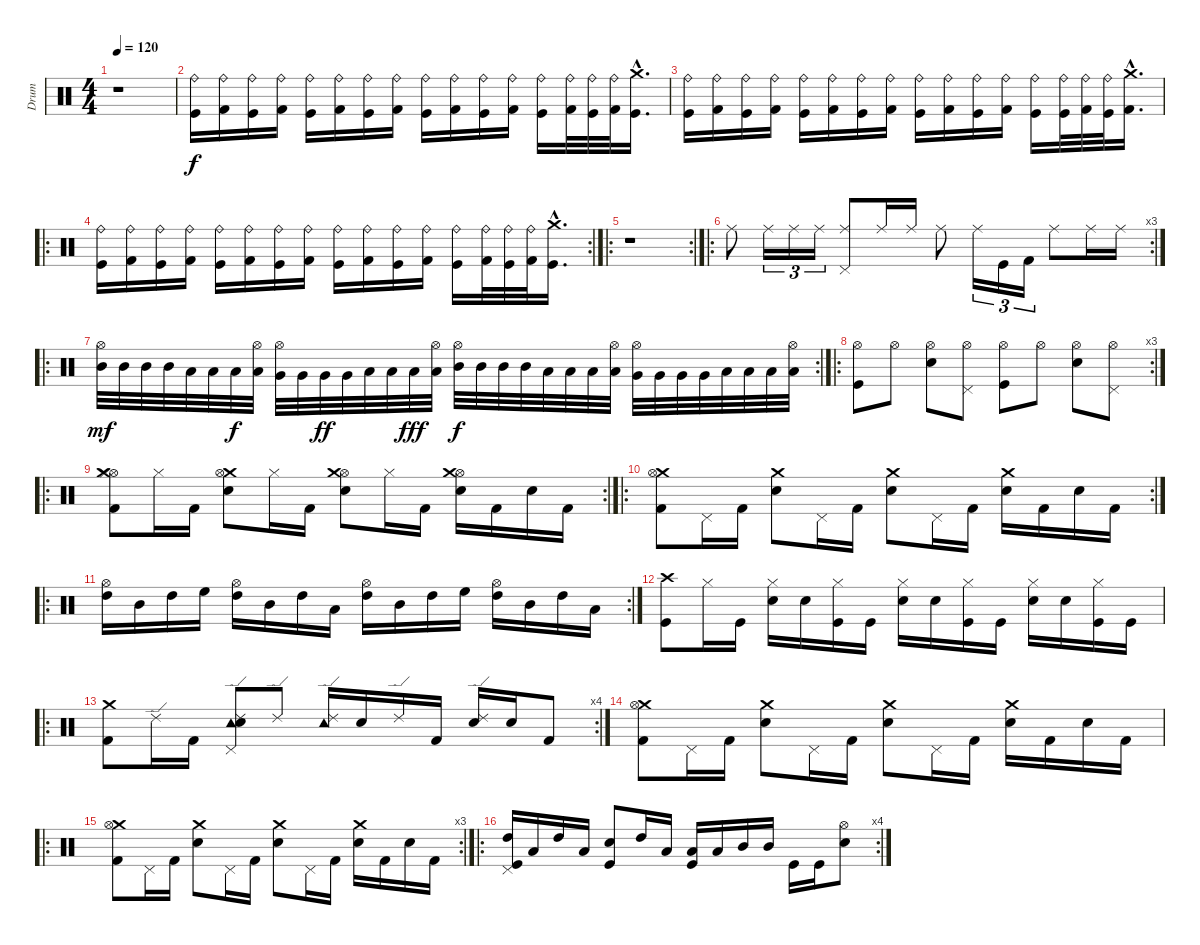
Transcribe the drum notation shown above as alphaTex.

\track ("Drum" "Drum") {instrument percussion}
\staff {score}
\articulation defaults
\ts (4 4)
\tempo 120
\clef neutral
\ks c
r.1{dy f} |
("Kick (hit)" "Ride (bell)").16 ("Kick (hit) 2" "Ride (bell)").16 ("Kick (hit)" "Ride (bell)").16 ("Kick (hit) 2" "Ride (bell)").16 ("Kick (hit)" "Ride (bell)").16 ("Kick (hit) 2" "Ride (bell)").16 ("Kick (hit)" "Ride (bell)").16 ("Kick (hit) 2" "Ride (bell)").16 ("Kick (hit)" "Ride (bell)").16 ("Kick (hit) 2" "Ride (bell)").16 ("Kick (hit)" "Ride (bell)").16 ("Kick (hit) 2" "Ride (bell)").16 ("Kick (hit)" "Ride (bell)").16 ("Kick (hit) 2" "Ride (bell)").32 ("Kick (hit)" "Ride (bell)").32 ("Kick (hit) 2" "Ride (bell)").32 ("Kick (hit)"{hac} "Crash medium (hit)"{hac}).16{d} |
("Kick (hit)" "Ride (bell)").16 ("Kick (hit) 2" "Ride (bell)").16 ("Kick (hit)" "Ride (bell)").16 ("Kick (hit) 2" "Ride (bell)").16 ("Kick (hit)" "Ride (bell)").16 ("Kick (hit) 2" "Ride (bell)").16 ("Kick (hit)" "Ride (bell)").16 ("Kick (hit) 2" "Ride (bell)").16 ("Kick (hit)" "Ride (bell)").16 ("Kick (hit) 2" "Ride (bell)").16 ("Kick (hit)" "Ride (bell)").16 ("Kick (hit) 2" "Ride (bell)").16 ("Kick (hit)" "Ride (bell)").16 ("Kick (hit)" "Ride (bell)").32 ("Kick (hit) 2" "Ride (bell)").32 ("Kick (hit)" "Ride (bell)").32 ("Kick (hit) 2"{hac} "Crash medium (hit)"{hac}).16{d} |
\ro
\rc 2
("Kick (hit)" "Ride (bell)").16 ("Kick (hit) 2" "Ride (bell)").16 ("Kick (hit)" "Ride (bell)").16 ("Kick (hit) 2" "Ride (bell)").16 ("Kick (hit)" "Ride (bell)").16 ("Kick (hit) 2" "Ride (bell)").16 ("Kick (hit)" "Ride (bell)").16 ("Kick (hit) 2" "Ride (bell)").16 ("Kick (hit)" "Ride (bell)").16 ("Kick (hit) 2" "Ride (bell)").16 ("Kick (hit)" "Ride (bell)").16 ("Kick (hit) 2" "Ride (bell)").16 ("Kick (hit)" "Ride (bell)").16 ("Kick (hit) 2" "Ride (bell)").32 ("Kick (hit)" "Ride (bell)").32 ("Kick (hit) 2" "Ride (bell)").32 ("Kick (hit)"{hac} "Crash medium (hit)"{hac}).16{d} |
\ro
\rc 2
r.1 |
\ro
\rc 3 "Ride (middle)".8 "Ride (middle)".16{tu (3 2)} "Ride (middle)".16{tu (3 2)} "Ride (middle)".16{tu (3 2)}
("Pedal Hi-Hat (hit)" "Ride (middle)").8 "Ride (middle)".16 "Ride (middle)".16 "Ride (middle)".8 "Ride (middle)".16{tu (3 2)} "Kick (hit)".16{tu (3 2)} "Kick (hit) 2".16{tu (3 2)} "Ride (middle)".8 "Ride (middle)".16 "Ride (middle)".16 |
\ro
\rc 2
("Mid Tom (hit)" "Hi-Hat (open)").32{dy mf} "Mid Tom (hit)".32 "Mid Tom (hit)".32 "Mid Tom (hit)".32 "Low Tom (hit)".32 "Low Tom (hit)".32 "Low Tom (hit)".32{dy f} ("Low Tom (hit)" "Hi-Hat (open)").32 ("Very Low Tom (hit)" "Hi-Hat (open)").32 "Very Low Tom (hit)".32 "Very Low Tom (hit)".32{dy ff} "Very Low Tom (hit)".32 "Low Floor Tom (hit)".32 "Low Floor Tom (hit)".32 "Low Floor Tom (hit)".32{dy fff} ("Low Floor Tom (hit)" "Hi-Hat (open)").32 ("Mid Tom (hit)" "Hi-Hat (open)").32{dy f} "Mid Tom (hit)".32 "Mid Tom (hit)".32 "Mid Tom (hit)".32 "Low Tom (hit)".32 "Low Tom (hit)".32 "Low Tom (hit)".32 ("Low Tom (hit)" "Hi-Hat (open)").32 ("Very Low Tom (hit)" "Hi-Hat (open)").32 "Very Low Tom (hit)".32 "Very Low Tom (hit)".32 "Very Low Tom (hit)".32 "Low Floor Tom (hit)".32 "Low Floor Tom (hit)".32 "Low Floor Tom (hit)".32 ("Low Floor Tom (hit)" "Hi-Hat (open)").32 |
\ro
\rc 3
("Hi-Hat (open)" "Kick (hit)").8 "Hi-Hat (open)".8 ("Hi-Hat (open)" "Snare (hit) 2").8 ("Hi-Hat (open)" "Pedal Hi-Hat (hit)").8 ("Hi-Hat (open)" "Kick (hit)").8 "Hi-Hat (open)".8 ("Hi-Hat (open)" "Snare (hit) 2").8 ("Hi-Hat (open)" "Pedal Hi-Hat (hit)").8 |
\ro
\rc 2
("Kick (hit) 2" "Hi-Hat (open)" "Crash medium (hit)" "Hi-Hat (closed)").8 "Hi-Hat (closed)".16 "Kick (hit) 2".16 ("Electric Snare (hit)" "Crash medium (hit)" "Hi-Hat (open)").8 "Hi-Hat (closed)".16 "Kick (hit) 2".16 ("Electric Snare (hit)" "Hi-Hat (open)" "Crash medium (hit)").8 "Hi-Hat (closed)".16 "Kick (hit) 2".16 ("Electric Snare (hit)" "Hi-Hat (open)" "Crash medium (hit)").16 "Kick (hit) 2".16 "Electric Snare (hit)".16 "Kick (hit) 2".16 |
\ro
\rc 2
("Crash medium (hit)" "Hi-Hat (open)" "Kick (hit) 2").8 "Pedal Hi-Hat (hit)".16 "Kick (hit) 2".16 ("Crash medium (hit)" "Electric Snare (hit)").8 "Pedal Hi-Hat (hit)".16 "Kick (hit) 2".16 ("Crash medium (hit)" "Electric Snare (hit)").8 "Pedal Hi-Hat (hit)".16 "Kick (hit) 2".16 ("Crash medium (hit)" "Electric Snare (hit)").16 "Kick (hit) 2".16 "Electric Snare (hit)".16 "Kick (hit) 2".16 |
\ro
\rc 2
("Hi-Hat (open)" "High Tom (hit)").16 "Mid Tom (hit)".16 "High Tom (hit)".16 "High Floor Tom (hit)".16 ("Hi-Hat (open)" "High Tom (hit)").16 "Mid Tom (hit)".16 "High Tom (hit)".16 "Low Tom (hit)".16 ("Hi-Hat (open)" "High Tom (hit)").16 "Mid Tom (hit)".16 "High Tom (hit)".16 "High Floor Tom (hit)".16 ("Hi-Hat (open)" "High Tom (hit)").16 "Mid Tom (hit)".16 "High Tom (hit)".16 "Low Tom (hit)".16 |
("Crash high (hit)" "Kick (hit)").8 "Hi-Hat (closed)".16 "Kick (hit)".16 ("Snare (hit) 2" "Hi-Hat (closed)").16 "Snare (hit) 2".16 ("Kick (hit)" "Hi-Hat (closed)").16 "Kick (hit)".16 ("Snare (hit) 2" "Hi-Hat (closed)").16 "Snare (hit) 2".16 ("Kick (hit)" "Hi-Hat (closed)").16 "Kick (hit)".16 ("Snare (hit) 2" "Hi-Hat (closed)").16 "Snare (hit) 2".16 ("Kick (hit)" "Hi-Hat (closed)").16 "Kick (hit)".16 |
\ro
\rc 4
("Crash medium (hit)" "Kick (hit) 2").8 "Ride (edge) 2".16 "Kick (hit) 2".16 ("Tambourine (hit)" "Pedal Hi-Hat (hit)" "Electric Snare (hit)" "Ride (edge) 2").8 "Ride (edge) 2".8 ("Tambourine (hit)" "Ride (edge) 2").16 "Electric Snare (hit)".16 "Ride (edge) 2".16 "Kick (hit) 2".16 ("Electric Snare (hit)" "Ride (edge) 2").16 "Electric Snare (hit)".16 "Kick (hit) 2".8 |
("Crash medium (hit)" "Hi-Hat (open)" "Kick (hit) 2").8 "Pedal Hi-Hat (hit)".16 "Kick (hit) 2".16 ("Crash medium (hit)" "Electric Snare (hit)").8 "Pedal Hi-Hat (hit)".16 "Kick (hit) 2".16 ("Crash medium (hit)" "Electric Snare (hit)").8 "Pedal Hi-Hat (hit)".16 "Kick (hit) 2".16 ("Crash medium (hit)" "Electric Snare (hit)").16 "Kick (hit) 2".16 "Electric Snare (hit)".16 "Kick (hit) 2".16 |
\ro
\rc 3
("Crash medium (hit)" "Hi-Hat (open)" "Kick (hit) 2").8 "Pedal Hi-Hat (hit)".16 "Kick (hit) 2".16 ("Crash medium (hit)" "Electric Snare (hit)").8 "Pedal Hi-Hat (hit)".16 "Kick (hit) 2".16 ("Crash medium (hit)" "Electric Snare (hit)").8 "Pedal Hi-Hat (hit)".16 "Kick (hit) 2".16 ("Crash medium (hit)" "Electric Snare (hit)").16 "Kick (hit) 2".16 "Electric Snare (hit)".16 "Kick (hit) 2".16 |
\ro
\rc 4
("High Tom (hit)" "Kick (hit)" "Pedal Hi-Hat (hit)").16 "Low Tom (hit)".16 "High Tom (hit)".16 "Low Tom (hit)".16 ("Kick (hit)" "Snare (hit) 2").8 "High Tom (hit)".16 "Low Tom (hit)".16 ("Low Tom (hit)" "Kick (hit)").16 "Low Tom (hit)".16 "Mid Tom (hit)".16 "Mid Tom (hit)".16 "Kick (hit)".16 "Kick (hit)".16 ("Snare (hit) 2" "Hi-Hat (open)").8
